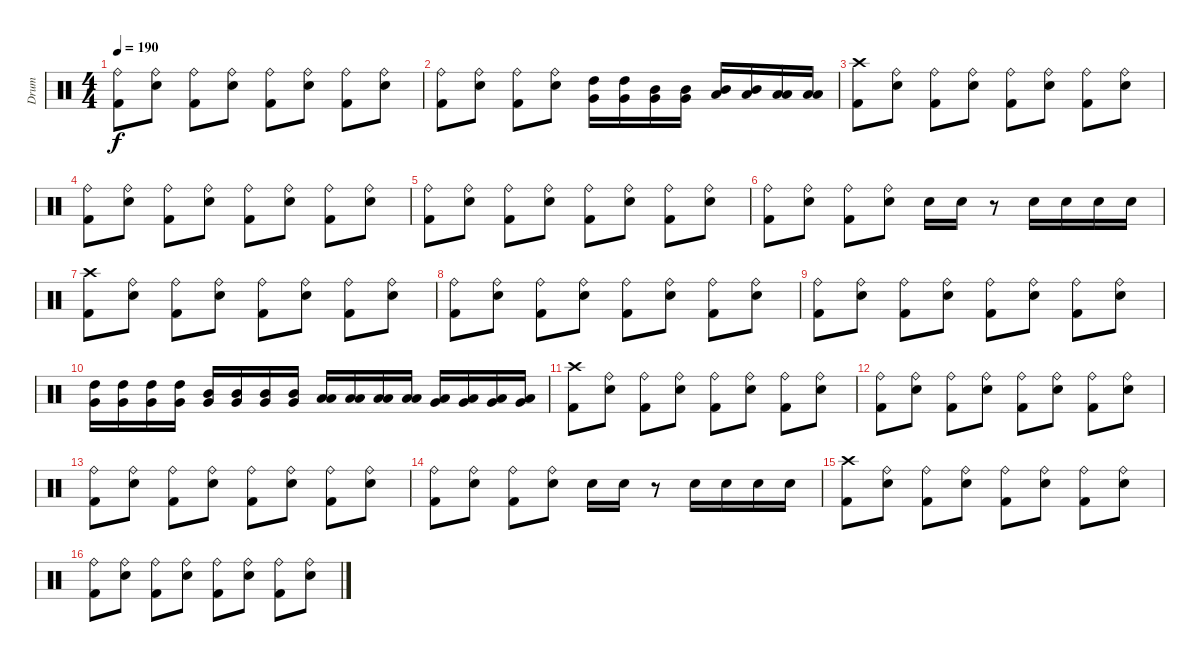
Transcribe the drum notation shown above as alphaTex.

\track ("Drum" "Drum") {instrument percussion}
\staff {score}
\articulation defaults
\ts (4 4)
\tempo 190
\clef neutral
\ks c
("Ride (bell)" "Kick (hit) 2").8{dy f} ("Ride (bell)" "Snare (hit) 2").8 ("Ride (bell)" "Kick (hit) 2").8 ("Ride (bell)" "Snare (hit) 2").8 ("Ride (bell)" "Kick (hit) 2").8 ("Ride (bell)" "Snare (hit) 2").8 ("Ride (bell)" "Kick (hit) 2").8 ("Ride (bell)" "Snare (hit) 2").8 |
("Ride (bell)" "Kick (hit) 2").8 ("Ride (bell)" "Snare (hit) 2").8 ("Ride (bell)" "Kick (hit) 2").8 ("Ride (bell)" "Snare (hit) 2").8 ("High Tom (hit)" "Very Low Tom (hit)").16 ("High Tom (hit)" "Very Low Tom (hit)").16 ("Mid Tom (hit)" "Very Low Tom (hit)").16 ("Mid Tom (hit)" "Very Low Tom (hit)").16 ("Mid Tom (hit)" "Low Floor Tom (hit)").16 ("Mid Tom (hit)" "Low Floor Tom (hit)").16 ("Low Tom (hit)" "Low Floor Tom (hit)").16 ("Low Tom (hit)" "Low Floor Tom (hit)").16 |
("Crash high (hit)" "Kick (hit) 2").8 ("Ride (bell)" "Snare (hit) 2").8 ("Ride (bell)" "Kick (hit) 2").8 ("Ride (bell)" "Snare (hit) 2").8 ("Ride (bell)" "Kick (hit) 2").8 ("Ride (bell)" "Snare (hit) 2").8 ("Ride (bell)" "Kick (hit) 2").8 ("Ride (bell)" "Snare (hit) 2").8 |
("Ride (bell)" "Kick (hit) 2").8 ("Ride (bell)" "Snare (hit) 2").8 ("Ride (bell)" "Kick (hit) 2").8 ("Ride (bell)" "Snare (hit) 2").8 ("Ride (bell)" "Kick (hit) 2").8 ("Ride (bell)" "Snare (hit) 2").8 ("Ride (bell)" "Kick (hit) 2").8 ("Ride (bell)" "Snare (hit) 2").8 |
("Ride (bell)" "Kick (hit) 2").8 ("Ride (bell)" "Snare (hit) 2").8 ("Ride (bell)" "Kick (hit) 2").8 ("Ride (bell)" "Snare (hit) 2").8 ("Ride (bell)" "Kick (hit) 2").8 ("Ride (bell)" "Snare (hit) 2").8 ("Ride (bell)" "Kick (hit) 2").8 ("Ride (bell)" "Snare (hit) 2").8 |
("Ride (bell)" "Kick (hit) 2").8 ("Ride (bell)" "Snare (hit) 2").8 ("Ride (bell)" "Kick (hit) 2").8 ("Ride (bell)" "Snare (hit) 2").8 "Snare (hit) 2".16 "Snare (hit) 2".16 r.8 "Snare (hit) 2".16 "Snare (hit) 2".16 "Snare (hit) 2".16 "Snare (hit) 2".16 |
("Crash high (hit)" "Kick (hit) 2").8 ("Ride (bell)" "Snare (hit) 2").8 ("Ride (bell)" "Kick (hit) 2").8 ("Ride (bell)" "Snare (hit) 2").8 ("Ride (bell)" "Kick (hit) 2").8 ("Ride (bell)" "Snare (hit) 2").8 ("Ride (bell)" "Kick (hit) 2").8 ("Ride (bell)" "Snare (hit) 2").8 |
("Ride (bell)" "Kick (hit) 2").8 ("Ride (bell)" "Snare (hit) 2").8 ("Ride (bell)" "Kick (hit) 2").8 ("Ride (bell)" "Snare (hit) 2").8 ("Ride (bell)" "Kick (hit) 2").8 ("Ride (bell)" "Snare (hit) 2").8 ("Ride (bell)" "Kick (hit) 2").8 ("Ride (bell)" "Snare (hit) 2").8 |
("Ride (bell)" "Kick (hit) 2").8 ("Ride (bell)" "Snare (hit) 2").8 ("Ride (bell)" "Kick (hit) 2").8 ("Ride (bell)" "Snare (hit) 2").8 ("Ride (bell)" "Kick (hit) 2").8 ("Ride (bell)" "Snare (hit) 2").8 ("Ride (bell)" "Kick (hit) 2").8 ("Ride (bell)" "Snare (hit) 2").8 |
("High Tom (hit)" "Very Low Tom (hit)").16 ("High Tom (hit)" "Very Low Tom (hit)").16 ("High Tom (hit)" "Very Low Tom (hit)").16 ("High Tom (hit)" "Very Low Tom (hit)").16 ("Mid Tom (hit)" "Very Low Tom (hit)").16 ("Mid Tom (hit)" "Very Low Tom (hit)").16 ("Mid Tom (hit)" "Very Low Tom (hit)").16 ("Mid Tom (hit)" "Very Low Tom (hit)").16 ("Low Tom (hit)" "Low Floor Tom (hit)").16 ("Low Tom (hit)" "Low Floor Tom (hit)").16 ("Low Tom (hit)" "Low Floor Tom (hit)").16 ("Low Tom (hit)" "Low Floor Tom (hit)").16 ("Very Low Tom (hit)" "Low Floor Tom (hit)").16 ("Very Low Tom (hit)" "Low Floor Tom (hit)").16 ("Very Low Tom (hit)" "Low Floor Tom (hit)").16 ("Very Low Tom (hit)" "Low Floor Tom (hit)").16 |
("Crash high (hit)" "Kick (hit) 2").8 ("Ride (bell)" "Snare (hit) 2").8 ("Ride (bell)" "Kick (hit) 2").8 ("Ride (bell)" "Snare (hit) 2").8 ("Ride (bell)" "Kick (hit) 2").8 ("Ride (bell)" "Snare (hit) 2").8 ("Ride (bell)" "Kick (hit) 2").8 ("Ride (bell)" "Snare (hit) 2").8 |
("Ride (bell)" "Kick (hit) 2").8 ("Ride (bell)" "Snare (hit) 2").8 ("Ride (bell)" "Kick (hit) 2").8 ("Ride (bell)" "Snare (hit) 2").8 ("Ride (bell)" "Kick (hit) 2").8 ("Ride (bell)" "Snare (hit) 2").8 ("Ride (bell)" "Kick (hit) 2").8 ("Ride (bell)" "Snare (hit) 2").8 |
("Ride (bell)" "Kick (hit) 2").8 ("Ride (bell)" "Snare (hit) 2").8 ("Ride (bell)" "Kick (hit) 2").8 ("Ride (bell)" "Snare (hit) 2").8 ("Ride (bell)" "Kick (hit) 2").8 ("Ride (bell)" "Snare (hit) 2").8 ("Ride (bell)" "Kick (hit) 2").8 ("Ride (bell)" "Snare (hit) 2").8 |
("Ride (bell)" "Kick (hit) 2").8 ("Ride (bell)" "Snare (hit) 2").8 ("Ride (bell)" "Kick (hit) 2").8 ("Ride (bell)" "Snare (hit) 2").8 "Snare (hit) 2".16 "Snare (hit) 2".16 r.8 "Snare (hit) 2".16 "Snare (hit) 2".16 "Snare (hit) 2".16 "Snare (hit) 2".16 |
("Crash high (hit)" "Kick (hit) 2").8 ("Ride (bell)" "Snare (hit) 2").8 ("Ride (bell)" "Kick (hit) 2").8 ("Ride (bell)" "Snare (hit) 2").8 ("Ride (bell)" "Kick (hit) 2").8 ("Ride (bell)" "Snare (hit) 2").8 ("Ride (bell)" "Kick (hit) 2").8 ("Ride (bell)" "Snare (hit) 2").8 |
("Ride (bell)" "Kick (hit) 2").8 ("Ride (bell)" "Snare (hit) 2").8 ("Ride (bell)" "Kick (hit) 2").8 ("Ride (bell)" "Snare (hit) 2").8 ("Ride (bell)" "Kick (hit) 2").8 ("Ride (bell)" "Snare (hit) 2").8 ("Ride (bell)" "Kick (hit) 2").8 ("Ride (bell)" "Snare (hit) 2").8
